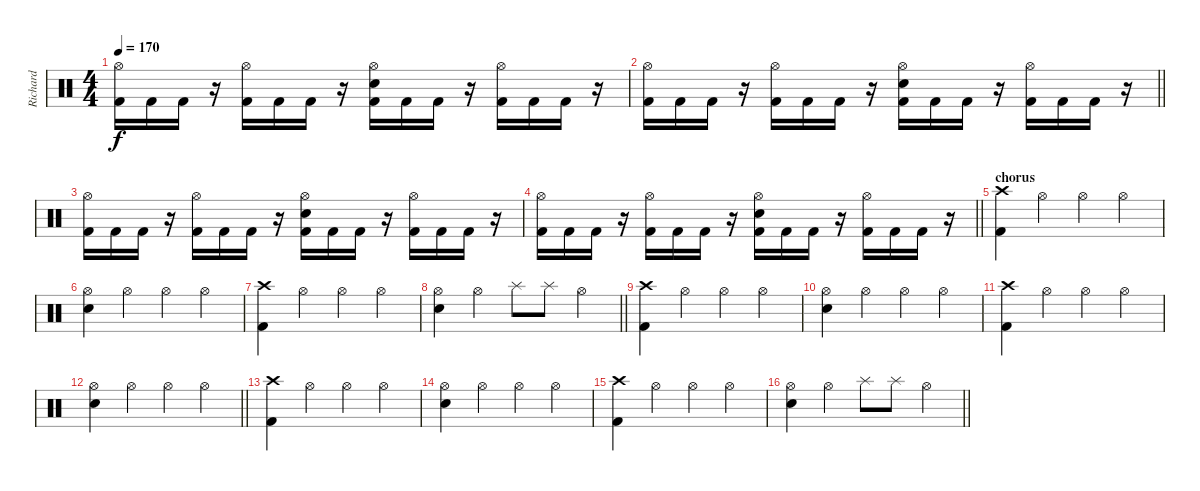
\track ("Richard" "Richard") {instrument percussion}
\staff {score}
\articulation defaults
\ts (4 4)
\tempo 170
\clef neutral
\ks c
("Hi-Hat (open)" "Kick (hit) 2").16{dy f} "Kick (hit) 2".16 "Kick (hit) 2".16 r.16 ("Hi-Hat (open)" "Kick (hit) 2").16 "Kick (hit) 2".16 "Kick (hit) 2".16 r.16 ("Electric Snare (hit)" "Hi-Hat (open)" "Kick (hit) 2").16 "Kick (hit) 2".16 "Kick (hit) 2".16 r.16 ("Hi-Hat (open)" "Kick (hit) 2").16 "Kick (hit) 2".16 "Kick (hit) 2".16 r.16 |
\barLineRight lightlight
("Hi-Hat (open)" "Kick (hit) 2").16 "Kick (hit) 2".16 "Kick (hit) 2".16 r.16 ("Hi-Hat (open)" "Kick (hit) 2").16 "Kick (hit) 2".16 "Kick (hit) 2".16 r.16 ("Electric Snare (hit)" "Hi-Hat (open)" "Kick (hit) 2").16 "Kick (hit) 2".16 "Kick (hit) 2".16 r.16 ("Hi-Hat (open)" "Kick (hit) 2").16 "Kick (hit) 2".16 "Kick (hit) 2".16 r.16 |
("Hi-Hat (open)" "Kick (hit) 2").16 "Kick (hit) 2".16 "Kick (hit) 2".16 r.16 ("Hi-Hat (open)" "Kick (hit) 2").16 "Kick (hit) 2".16 "Kick (hit) 2".16 r.16 ("Electric Snare (hit)" "Hi-Hat (open)" "Kick (hit) 2").16 "Kick (hit) 2".16 "Kick (hit) 2".16 r.16 ("Hi-Hat (open)" "Kick (hit) 2").16 "Kick (hit) 2".16 "Kick (hit) 2".16 r.16 |
\barLineRight lightlight
("Hi-Hat (open)" "Kick (hit) 2").16 "Kick (hit) 2".16 "Kick (hit) 2".16 r.16 ("Hi-Hat (open)" "Kick (hit) 2").16 "Kick (hit) 2".16 "Kick (hit) 2".16 r.16 ("Electric Snare (hit)" "Hi-Hat (open)" "Kick (hit) 2").16 "Kick (hit) 2".16 "Kick (hit) 2".16 r.16 ("Hi-Hat (open)" "Kick (hit) 2").16 "Kick (hit) 2".16 "Kick (hit) 2".16 r.16 |
\section ("" "chorus")
("Crash high (hit)" "Kick (hit) 2").4 "Hi-Hat (open)".4 "Hi-Hat (open)".4 "Hi-Hat (open)".4 |
("Hi-Hat (open)" "Electric Snare (hit)").4 "Hi-Hat (open)".4 "Hi-Hat (open)".4 "Hi-Hat (open)".4 |
("Crash high (hit)" "Kick (hit) 2").4 "Hi-Hat (open)".4 "Hi-Hat (open)".4 "Hi-Hat (open)".4 |
\barLineRight lightlight
("Hi-Hat (open)" "Electric Snare (hit)").4 "Hi-Hat (open)".4 "Splash (hit)".8 "Splash (hit)".8 "Hi-Hat (open)".4 |
("Crash high (hit)" "Kick (hit) 2").4 "Hi-Hat (open)".4 "Hi-Hat (open)".4 "Hi-Hat (open)".4 |
("Hi-Hat (open)" "Electric Snare (hit)").4 "Hi-Hat (open)".4 "Hi-Hat (open)".4 "Hi-Hat (open)".4 |
("Crash high (hit)" "Kick (hit) 2").4 "Hi-Hat (open)".4 "Hi-Hat (open)".4 "Hi-Hat (open)".4 |
\barLineRight lightlight
("Hi-Hat (open)" "Electric Snare (hit)").4 "Hi-Hat (open)".4 "Hi-Hat (open)".4 "Hi-Hat (open)".4 |
("Crash high (hit)" "Kick (hit) 2").4 "Hi-Hat (open)".4 "Hi-Hat (open)".4 "Hi-Hat (open)".4 |
("Hi-Hat (open)" "Electric Snare (hit)").4 "Hi-Hat (open)".4 "Hi-Hat (open)".4 "Hi-Hat (open)".4 |
("Crash high (hit)" "Kick (hit) 2").4 "Hi-Hat (open)".4 "Hi-Hat (open)".4 "Hi-Hat (open)".4 |
\barLineRight lightlight
("Hi-Hat (open)" "Electric Snare (hit)").4 "Hi-Hat (open)".4 "Splash (hit)".8 "Splash (hit)".8 "Hi-Hat (open)".4
